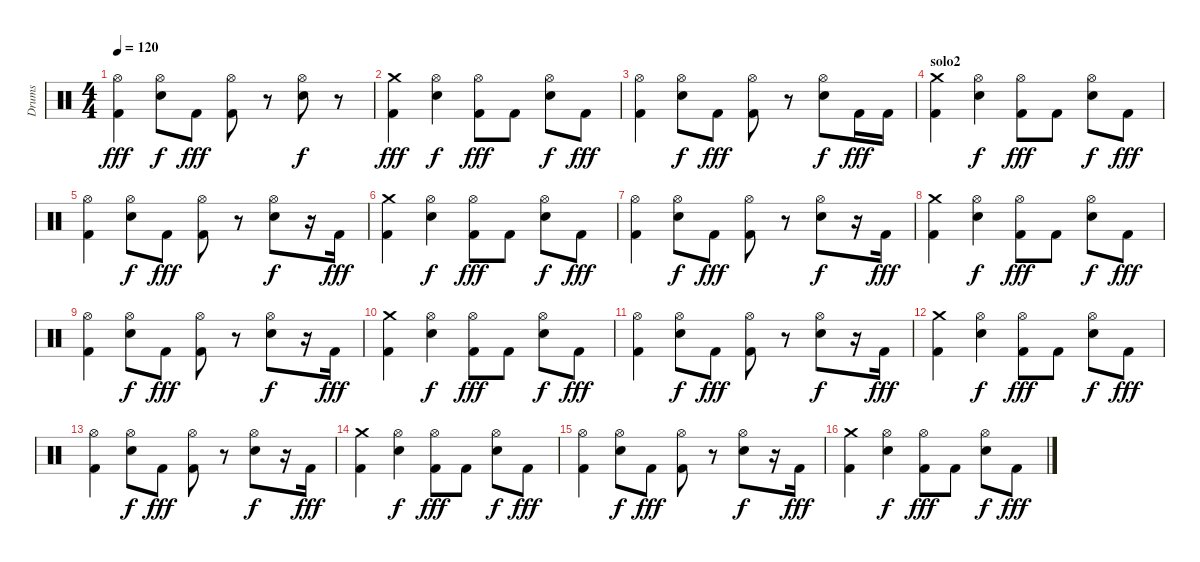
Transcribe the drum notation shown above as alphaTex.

\track ("Drums" "Drums") {instrument percussion}
\staff {score}
\articulation defaults
\ts (4 4)
\tempo 120
\clef neutral
\ks c
("Kick (hit) 2" "Hi-Hat (open)").4{dy fff} ("Electric Snare (hit)" "Hi-Hat (open)").8{dy f} "Kick (hit) 2".8{dy fff} ("Kick (hit) 2" "Hi-Hat (open)").8 r.8 ("Electric Snare (hit)" "Hi-Hat (open)").8{dy f} r.8 |
("Kick (hit) 2" "Crash medium (hit)").4{dy fff} ("Electric Snare (hit)" "Hi-Hat (open)").4{dy f} ("Kick (hit) 2" "Hi-Hat (open)").8{dy fff} "Kick (hit) 2".8 ("Electric Snare (hit)" "Hi-Hat (open)").8{dy f} "Kick (hit) 2".8{dy fff} |
("Kick (hit) 2" "Hi-Hat (open)").4 ("Electric Snare (hit)" "Hi-Hat (open)").8{dy f} "Kick (hit) 2".8{dy fff} ("Kick (hit) 2" "Hi-Hat (open)").8 r.8 ("Electric Snare (hit)" "Hi-Hat (open)").8{dy f} "Kick (hit) 2".16{dy fff} "Kick (hit) 2".16 |
\section ("" "solo2")
("Kick (hit) 2" "Crash medium (hit)").4 ("Electric Snare (hit)" "Hi-Hat (open)").4{dy f} ("Kick (hit) 2" "Hi-Hat (open)").8{dy fff} "Kick (hit) 2".8 ("Electric Snare (hit)" "Hi-Hat (open)").8{dy f} "Kick (hit) 2".8{dy fff} |
("Kick (hit) 2" "Hi-Hat (open)").4 ("Electric Snare (hit)" "Hi-Hat (open)").8{dy f} "Kick (hit) 2".8{dy fff} ("Kick (hit) 2" "Hi-Hat (open)").8 r.8 ("Electric Snare (hit)" "Hi-Hat (open)").8{dy f} r.16 "Kick (hit) 2".16{dy fff} |
("Kick (hit) 2" "Crash medium (hit)").4 ("Electric Snare (hit)" "Hi-Hat (open)").4{dy f} ("Kick (hit) 2" "Hi-Hat (open)").8{dy fff} "Kick (hit) 2".8 ("Electric Snare (hit)" "Hi-Hat (open)").8{dy f} "Kick (hit) 2".8{dy fff} |
("Kick (hit) 2" "Hi-Hat (open)").4 ("Electric Snare (hit)" "Hi-Hat (open)").8{dy f} "Kick (hit) 2".8{dy fff} ("Kick (hit) 2" "Hi-Hat (open)").8 r.8 ("Electric Snare (hit)" "Hi-Hat (open)").8{dy f} r.16 "Kick (hit) 2".16{dy fff} |
("Kick (hit) 2" "Crash medium (hit)").4 ("Electric Snare (hit)" "Hi-Hat (open)").4{dy f} ("Kick (hit) 2" "Hi-Hat (open)").8{dy fff} "Kick (hit) 2".8 ("Electric Snare (hit)" "Hi-Hat (open)").8{dy f} "Kick (hit) 2".8{dy fff} |
("Kick (hit) 2" "Hi-Hat (open)").4 ("Electric Snare (hit)" "Hi-Hat (open)").8{dy f} "Kick (hit) 2".8{dy fff} ("Kick (hit) 2" "Hi-Hat (open)").8 r.8 ("Electric Snare (hit)" "Hi-Hat (open)").8{dy f} r.16 "Kick (hit) 2".16{dy fff} |
("Kick (hit) 2" "Crash medium (hit)").4 ("Electric Snare (hit)" "Hi-Hat (open)").4{dy f} ("Kick (hit) 2" "Hi-Hat (open)").8{dy fff} "Kick (hit) 2".8 ("Electric Snare (hit)" "Hi-Hat (open)").8{dy f} "Kick (hit) 2".8{dy fff} |
("Kick (hit) 2" "Hi-Hat (open)").4 ("Electric Snare (hit)" "Hi-Hat (open)").8{dy f} "Kick (hit) 2".8{dy fff} ("Kick (hit) 2" "Hi-Hat (open)").8 r.8 ("Electric Snare (hit)" "Hi-Hat (open)").8{dy f} r.16 "Kick (hit) 2".16{dy fff} |
("Kick (hit) 2" "Crash medium (hit)").4 ("Electric Snare (hit)" "Hi-Hat (open)").4{dy f} ("Kick (hit) 2" "Hi-Hat (open)").8{dy fff} "Kick (hit) 2".8 ("Electric Snare (hit)" "Hi-Hat (open)").8{dy f} "Kick (hit) 2".8{dy fff} |
("Kick (hit) 2" "Hi-Hat (open)").4 ("Electric Snare (hit)" "Hi-Hat (open)").8{dy f} "Kick (hit) 2".8{dy fff} ("Kick (hit) 2" "Hi-Hat (open)").8 r.8 ("Electric Snare (hit)" "Hi-Hat (open)").8{dy f} r.16 "Kick (hit) 2".16{dy fff} |
("Kick (hit) 2" "Crash medium (hit)").4 ("Electric Snare (hit)" "Hi-Hat (open)").4{dy f} ("Kick (hit) 2" "Hi-Hat (open)").8{dy fff} "Kick (hit) 2".8 ("Electric Snare (hit)" "Hi-Hat (open)").8{dy f} "Kick (hit) 2".8{dy fff} |
("Kick (hit) 2" "Hi-Hat (open)").4 ("Electric Snare (hit)" "Hi-Hat (open)").8{dy f} "Kick (hit) 2".8{dy fff} ("Kick (hit) 2" "Hi-Hat (open)").8 r.8 ("Electric Snare (hit)" "Hi-Hat (open)").8{dy f} r.16 "Kick (hit) 2".16{dy fff} |
("Kick (hit) 2" "Crash medium (hit)").4 ("Electric Snare (hit)" "Hi-Hat (open)").4{dy f} ("Kick (hit) 2" "Hi-Hat (open)").8{dy fff} "Kick (hit) 2".8 ("Electric Snare (hit)" "Hi-Hat (open)").8{dy f} "Kick (hit) 2".8{dy fff}
